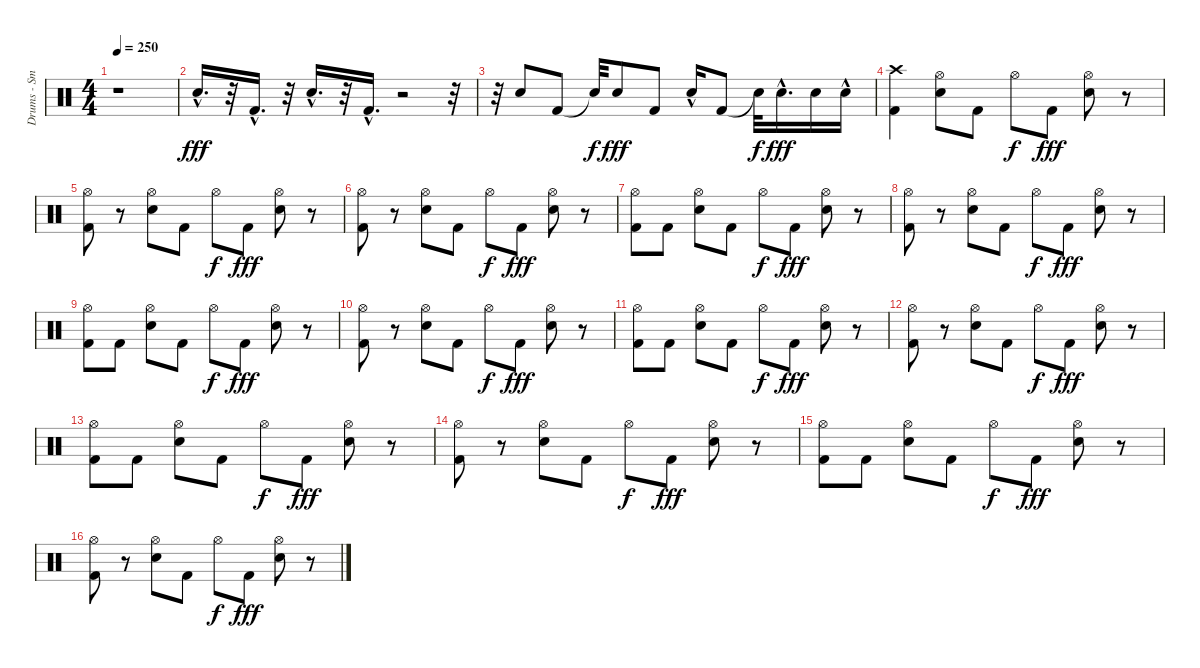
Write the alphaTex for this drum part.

\track ("Drums - Smelly" "Drums - Sm") {instrument percussion}
\staff {score}
\articulation defaults
\ts (4 4)
\tempo 250
\clef neutral
\ks c
r.1{dy fff} |
"Electric Snare (hit)"{hac}.16{d} r.32 "Kick (hit) 2"{hac}.16{d} r.32 "Electric Snare (hit)"{hac}.16{d} r.32 "Kick (hit) 2"{hac}.16{d} r.2 r.32 |
r.32 "Electric Snare (hit)".8 "Kick (hit) 2".8 "Snare (hit)"{t}.32{dy f} "Electric Snare (hit)".8{dy fff} "Kick (hit) 2".8 "Electric Snare (hit)"{hac}.16 "Kick (hit) 2".8 "Snare (hit)"{t}.32{dy f} "Electric Snare (hit)"{hac}.16{d dy fff} "Electric Snare (hit)".16 "Electric Snare (hit)"{hac}.16 |
("Kick (hit) 2" "Crash high (hit)").4 ("Electric Snare (hit)" "Hi-Hat (open)").8 "Kick (hit) 2".8 "Hi-Hat (open)".8{dy f} "Kick (hit) 2".8{dy fff} ("Electric Snare (hit)" "Hi-Hat (open)").8 r.8 |
("Kick (hit) 2" "Hi-Hat (open)").8 r.8 ("Electric Snare (hit)" "Hi-Hat (open)").8 "Kick (hit) 2".8 "Hi-Hat (open)".8{dy f} "Kick (hit) 2".8{dy fff} ("Hi-Hat (open)" "Electric Snare (hit)").8 r.8 |
("Kick (hit) 2" "Hi-Hat (open)").8 r.8 ("Hi-Hat (open)" "Electric Snare (hit)").8 "Kick (hit) 2".8 "Hi-Hat (open)".8{dy f} "Kick (hit) 2".8{dy fff} ("Hi-Hat (open)" "Electric Snare (hit)").8 r.8 |
("Hi-Hat (open)" "Kick (hit) 2").8 "Kick (hit) 2".8 ("Electric Snare (hit)" "Hi-Hat (open)").8 "Kick (hit) 2".8 "Hi-Hat (open)".8{dy f} "Kick (hit) 2".8{dy fff} ("Electric Snare (hit)" "Hi-Hat (open)").8 r.8 |
("Kick (hit) 2" "Hi-Hat (open)").8 r.8 ("Hi-Hat (open)" "Electric Snare (hit)").8 "Kick (hit) 2".8 "Hi-Hat (open)".8{dy f} "Kick (hit) 2".8{dy fff} ("Hi-Hat (open)" "Electric Snare (hit)").8 r.8 |
("Hi-Hat (open)" "Kick (hit) 2").8 "Kick (hit) 2".8 ("Electric Snare (hit)" "Hi-Hat (open)").8 "Kick (hit) 2".8 "Hi-Hat (open)".8{dy f} "Kick (hit) 2".8{dy fff} ("Electric Snare (hit)" "Hi-Hat (open)").8 r.8 |
("Kick (hit) 2" "Hi-Hat (open)").8 r.8 ("Hi-Hat (open)" "Electric Snare (hit)").8 "Kick (hit) 2".8 "Hi-Hat (open)".8{dy f} "Kick (hit) 2".8{dy fff} ("Hi-Hat (open)" "Electric Snare (hit)").8 r.8 |
("Hi-Hat (open)" "Kick (hit) 2").8 "Kick (hit) 2".8 ("Electric Snare (hit)" "Hi-Hat (open)").8 "Kick (hit) 2".8 "Hi-Hat (open)".8{dy f} "Kick (hit) 2".8{dy fff} ("Electric Snare (hit)" "Hi-Hat (open)").8 r.8 |
("Kick (hit) 2" "Hi-Hat (open)").8 r.8 ("Hi-Hat (open)" "Electric Snare (hit)").8 "Kick (hit) 2".8 "Hi-Hat (open)".8{dy f} "Kick (hit) 2".8{dy fff} ("Hi-Hat (open)" "Electric Snare (hit)").8 r.8 |
("Hi-Hat (open)" "Kick (hit) 2").8 "Kick (hit) 2".8 ("Electric Snare (hit)" "Hi-Hat (open)").8 "Kick (hit) 2".8 "Hi-Hat (open)".8{dy f} "Kick (hit) 2".8{dy fff} ("Electric Snare (hit)" "Hi-Hat (open)").8 r.8 |
("Kick (hit) 2" "Hi-Hat (open)").8 r.8 ("Hi-Hat (open)" "Electric Snare (hit)").8 "Kick (hit) 2".8 "Hi-Hat (open)".8{dy f} "Kick (hit) 2".8{dy fff} ("Hi-Hat (open)" "Electric Snare (hit)").8 r.8 |
("Hi-Hat (open)" "Kick (hit) 2").8 "Kick (hit) 2".8 ("Electric Snare (hit)" "Hi-Hat (open)").8 "Kick (hit) 2".8 "Hi-Hat (open)".8{dy f} "Kick (hit) 2".8{dy fff} ("Electric Snare (hit)" "Hi-Hat (open)").8 r.8 |
("Kick (hit) 2" "Hi-Hat (open)").8 r.8 ("Hi-Hat (open)" "Electric Snare (hit)").8 "Kick (hit) 2".8 "Hi-Hat (open)".8{dy f} "Kick (hit) 2".8{dy fff} ("Hi-Hat (open)" "Electric Snare (hit)").8 r.8
